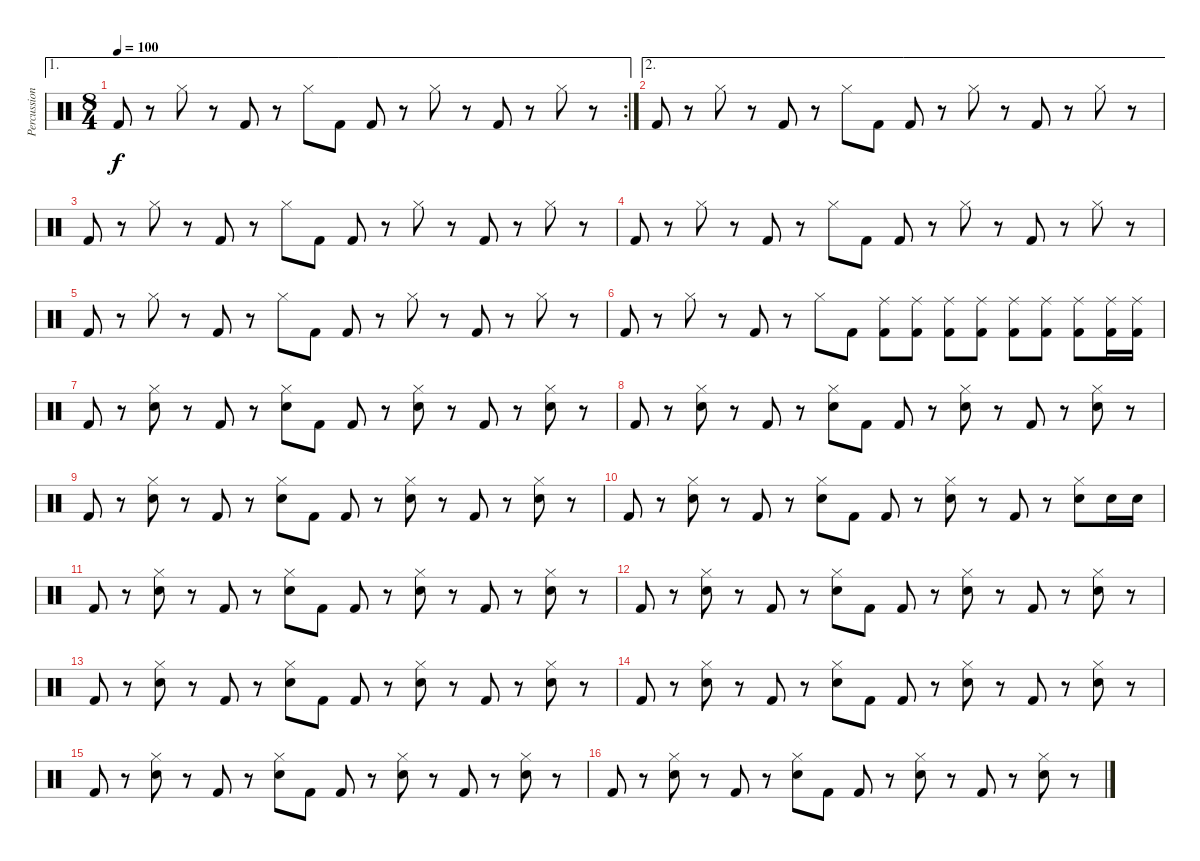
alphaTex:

\track ("Percussion" "Percussion") {instrument percussion}
\staff {score}
\articulation defaults
\ae 1
\rc 2
\ts (8 4)
\tempo 100
\clef neutral
\ks c "Kick (hit) 2".8{dy f}
r.8 "Hi-Hat (closed)".8 r.8 "Kick (hit) 2".8 r.8 "Hi-Hat (closed)".8 "Kick (hit) 2".8 "Kick (hit) 2".8 r.8 "Hi-Hat (closed)".8 r.8 "Kick (hit) 2".8 r.8 "Hi-Hat (closed)".8 r.8 |
\ae 2 "Kick (hit) 2".8
r.8 "Hi-Hat (closed)".8 r.8 "Kick (hit) 2".8 r.8 "Hi-Hat (closed)".8 "Kick (hit) 2".8 "Kick (hit) 2".8 r.8 "Hi-Hat (closed)".8 r.8 "Kick (hit) 2".8 r.8 "Hi-Hat (closed)".8 r.8 |
"Kick (hit) 2".8 r.8 "Hi-Hat (closed)".8 r.8 "Kick (hit) 2".8 r.8 "Hi-Hat (closed)".8 "Kick (hit) 2".8 "Kick (hit) 2".8 r.8 "Hi-Hat (closed)".8 r.8 "Kick (hit) 2".8 r.8 "Hi-Hat (closed)".8 r.8 |
"Kick (hit) 2".8 r.8 "Hi-Hat (closed)".8 r.8 "Kick (hit) 2".8 r.8 "Hi-Hat (closed)".8 "Kick (hit) 2".8 "Kick (hit) 2".8 r.8 "Hi-Hat (closed)".8 r.8 "Kick (hit) 2".8 r.8 "Hi-Hat (closed)".8 r.8 |
"Kick (hit) 2".8 r.8 "Hi-Hat (closed)".8 r.8 "Kick (hit) 2".8 r.8 "Hi-Hat (closed)".8 "Kick (hit) 2".8 "Kick (hit) 2".8 r.8 "Hi-Hat (closed)".8 r.8 "Kick (hit) 2".8 r.8 "Hi-Hat (closed)".8 r.8 |
"Kick (hit) 2".8 r.8 "Hi-Hat (closed)".8 r.8 "Kick (hit) 2".8 r.8 "Hi-Hat (closed)".8 "Kick (hit) 2".8 ("Ride (middle)" "Kick (hit) 2").8 ("Ride (middle)" "Kick (hit) 2").8 ("Ride (middle)" "Kick (hit) 2").8 ("Ride (middle)" "Kick (hit) 2").8 ("Ride (middle)" "Kick (hit) 2").8 ("Ride (middle)" "Kick (hit) 2").8 ("Ride (middle)" "Kick (hit) 2").8 ("Ride (middle)" "Kick (hit) 2").16 ("Ride (middle)" "Kick (hit) 2").16 |
"Kick (hit) 2".8 r.8 ("Hi-Hat (closed)" "Snare (hit) 2").8 r.8 "Kick (hit) 2".8 r.8 ("Hi-Hat (closed)" "Snare (hit) 2").8 "Kick (hit) 2".8 "Kick (hit) 2".8 r.8 ("Hi-Hat (closed)" "Snare (hit) 2").8 r.8 "Kick (hit) 2".8 r.8 ("Hi-Hat (closed)" "Snare (hit) 2").8 r.8 |
"Kick (hit) 2".8 r.8 ("Hi-Hat (closed)" "Snare (hit) 2").8 r.8 "Kick (hit) 2".8 r.8 ("Hi-Hat (closed)" "Snare (hit) 2").8 "Kick (hit) 2".8 "Kick (hit) 2".8 r.8 ("Hi-Hat (closed)" "Snare (hit) 2").8 r.8 "Kick (hit) 2".8 r.8 ("Hi-Hat (closed)" "Snare (hit) 2").8 r.8 |
"Kick (hit) 2".8 r.8 ("Hi-Hat (closed)" "Snare (hit) 2").8 r.8 "Kick (hit) 2".8 r.8 ("Hi-Hat (closed)" "Snare (hit) 2").8 "Kick (hit) 2".8 "Kick (hit) 2".8 r.8 ("Hi-Hat (closed)" "Snare (hit) 2").8 r.8 "Kick (hit) 2".8 r.8 ("Hi-Hat (closed)" "Snare (hit) 2").8 r.8 |
"Kick (hit) 2".8 r.8 ("Hi-Hat (closed)" "Snare (hit) 2").8 r.8 "Kick (hit) 2".8 r.8 ("Hi-Hat (closed)" "Snare (hit) 2").8 "Kick (hit) 2".8 "Kick (hit) 2".8 r.8 ("Hi-Hat (closed)" "Snare (hit) 2").8 r.8 "Kick (hit) 2".8 r.8 ("Hi-Hat (closed)" "Snare (hit) 2").8 "Snare (hit) 2".16 "Snare (hit) 2".16 |
"Kick (hit) 2".8 r.8 ("Hi-Hat (closed)" "Snare (hit) 2").8 r.8 "Kick (hit) 2".8 r.8 ("Hi-Hat (closed)" "Snare (hit) 2").8 "Kick (hit) 2".8 "Kick (hit) 2".8 r.8 ("Hi-Hat (closed)" "Snare (hit) 2").8 r.8 "Kick (hit) 2".8 r.8 ("Hi-Hat (closed)" "Snare (hit) 2").8 r.8 |
"Kick (hit) 2".8 r.8 ("Hi-Hat (closed)" "Snare (hit) 2").8 r.8 "Kick (hit) 2".8 r.8 ("Hi-Hat (closed)" "Snare (hit) 2").8 "Kick (hit) 2".8 "Kick (hit) 2".8 r.8 ("Hi-Hat (closed)" "Snare (hit) 2").8 r.8 "Kick (hit) 2".8 r.8 ("Hi-Hat (closed)" "Snare (hit) 2").8 r.8 |
"Kick (hit) 2".8 r.8 ("Hi-Hat (closed)" "Snare (hit) 2").8 r.8 "Kick (hit) 2".8 r.8 ("Hi-Hat (closed)" "Snare (hit) 2").8 "Kick (hit) 2".8 "Kick (hit) 2".8 r.8 ("Hi-Hat (closed)" "Snare (hit) 2").8 r.8 "Kick (hit) 2".8 r.8 ("Hi-Hat (closed)" "Snare (hit) 2").8 r.8 |
"Kick (hit) 2".8 r.8 ("Hi-Hat (closed)" "Snare (hit) 2").8 r.8 "Kick (hit) 2".8 r.8 ("Hi-Hat (closed)" "Snare (hit) 2").8 "Kick (hit) 2".8 "Kick (hit) 2".8 r.8 ("Hi-Hat (closed)" "Snare (hit) 2").8 r.8 "Kick (hit) 2".8 r.8 ("Hi-Hat (closed)" "Snare (hit) 2").8 r.8 |
"Kick (hit) 2".8 r.8 ("Hi-Hat (closed)" "Snare (hit) 2").8 r.8 "Kick (hit) 2".8 r.8 ("Hi-Hat (closed)" "Snare (hit) 2").8 "Kick (hit) 2".8 "Kick (hit) 2".8 r.8 ("Hi-Hat (closed)" "Snare (hit) 2").8 r.8 "Kick (hit) 2".8 r.8 ("Hi-Hat (closed)" "Snare (hit) 2").8 r.8 |
"Kick (hit) 2".8 r.8 ("Hi-Hat (closed)" "Snare (hit) 2").8 r.8 "Kick (hit) 2".8 r.8 ("Hi-Hat (closed)" "Snare (hit) 2").8 "Kick (hit) 2".8 "Kick (hit) 2".8 r.8 ("Hi-Hat (closed)" "Snare (hit) 2").8 r.8 "Kick (hit) 2".8 r.8 ("Hi-Hat (closed)" "Snare (hit) 2").8 r.8
